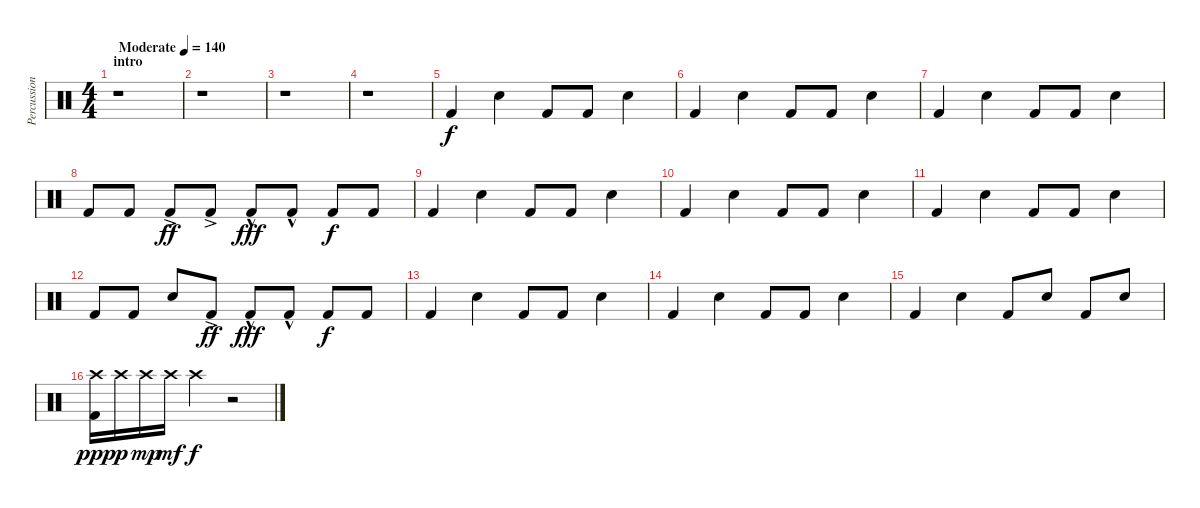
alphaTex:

\track ("Percussions" "Percussion") {instrument percussion}
\staff {score}
\articulation defaults
\ts (4 4)
\section ("" "intro")
\tempo (140 "Moderate")
\clef neutral
\ks c
r.1{dy f} |
r.1 |
r.1 |
r.1 |
"Kick (hit) 2".4 "Snare (hit) 2".4 "Kick (hit) 2".8 "Kick (hit) 2".8 "Snare (hit) 2".4 |
"Kick (hit) 2".4 "Snare (hit) 2".4 "Kick (hit) 2".8 "Kick (hit) 2".8 "Snare (hit) 2".4 |
"Kick (hit) 2".4 "Snare (hit) 2".4 "Kick (hit) 2".8 "Kick (hit) 2".8 "Snare (hit) 2".4 |
"Kick (hit) 2".8 "Kick (hit) 2".8 "Kick (hit) 2"{ac}.8{dy ff} "Kick (hit) 2"{ac}.8 "Kick (hit) 2"{hac}.8{dy fff} "Kick (hit) 2"{hac}.8 "Kick (hit) 2".8{dy f} "Kick (hit) 2".8 |
"Kick (hit) 2".4 "Snare (hit) 2".4 "Kick (hit) 2".8 "Kick (hit) 2".8 "Snare (hit) 2".4 |
"Kick (hit) 2".4 "Snare (hit) 2".4 "Kick (hit) 2".8 "Kick (hit) 2".8 "Snare (hit) 2".4 |
"Kick (hit) 2".4 "Snare (hit) 2".4 "Kick (hit) 2".8 "Kick (hit) 2".8 "Snare (hit) 2".4 |
"Kick (hit) 2".8 "Kick (hit) 2".8 "Snare (hit) 2".8 "Kick (hit) 2"{ac}.8{dy ff} "Kick (hit) 2"{hac}.8{dy fff} "Kick (hit) 2"{hac}.8 "Kick (hit) 2".8{dy f} "Kick (hit) 2".8 |
"Kick (hit) 2".4 "Snare (hit) 2".4 "Kick (hit) 2".8 "Kick (hit) 2".8 "Snare (hit) 2".4 |
"Kick (hit) 2".4 "Snare (hit) 2".4 "Kick (hit) 2".8 "Kick (hit) 2".8 "Snare (hit) 2".4 |
"Kick (hit) 2".4 "Snare (hit) 2".4 "Kick (hit) 2".8 "Snare (hit) 2".8 "Kick (hit) 2".8 "Snare (hit) 2".8 |
("Crash high (hit)" "Kick (hit) 2").16{dy ppp} "Crash high (hit)".16{dy p} "Crash high (hit)".16{dy mp} "Crash high (hit)".16{dy mf} "Crash high (hit)".4{dy f} r.2
